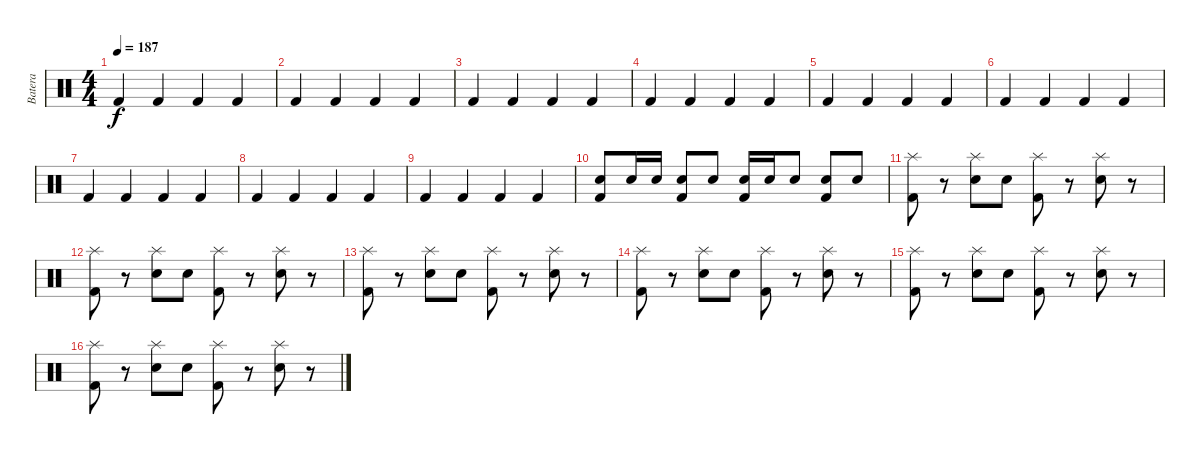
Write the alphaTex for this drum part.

\track ("Batera" "Batera") {instrument percussion}
\staff {score}
\articulation defaults
\ts (4 4)
\tempo 187
\clef neutral
\ks c "Kick (hit) 2".4{dy f} "Kick (hit) 2".4 "Kick (hit) 2".4 "Kick (hit) 2".4
|
"Kick (hit) 2".4 "Kick (hit) 2".4 "Kick (hit) 2".4 "Kick (hit) 2".4 |
"Kick (hit) 2".4 "Kick (hit) 2".4 "Kick (hit) 2".4 "Kick (hit) 2".4 |
"Kick (hit) 2".4 "Kick (hit) 2".4 "Kick (hit) 2".4 "Kick (hit) 2".4 |
"Kick (hit) 2".4 "Kick (hit) 2".4 "Kick (hit) 2".4 "Kick (hit) 2".4 |
"Kick (hit) 2".4 "Kick (hit) 2".4 "Kick (hit) 2".4 "Kick (hit) 2".4 |
"Kick (hit) 2".4 "Kick (hit) 2".4 "Kick (hit) 2".4 "Kick (hit) 2".4 |
"Kick (hit) 2".4 "Kick (hit) 2".4 "Kick (hit) 2".4 "Kick (hit) 2".4 |
"Kick (hit) 2".4 "Kick (hit) 2".4 "Kick (hit) 2".4 "Kick (hit) 2".4 |
("Electric Snare (hit)" "Kick (hit) 2").8 "Electric Snare (hit)".16 "Electric Snare (hit)".16 ("Electric Snare (hit)" "Kick (hit) 2").8 "Electric Snare (hit)".8 ("Electric Snare (hit)" "Kick (hit) 2").16 "Electric Snare (hit)".16 "Electric Snare (hit)".8 ("Electric Snare (hit)" "Kick (hit) 2").8 "Electric Snare (hit)".8 |
("Splash (hit)" "Kick (hit) 2").8 r.8 ("Splash (hit)" "Electric Snare (hit)").8 "Electric Snare (hit)".8 ("Splash (hit)" "Kick (hit) 2").8 r.8 ("Splash (hit)" "Electric Snare (hit)").8 r.8 |
("Splash (hit)" "Kick (hit) 2").8 r.8 ("Splash (hit)" "Electric Snare (hit)").8 "Electric Snare (hit)".8 ("Splash (hit)" "Kick (hit) 2").8 r.8 ("Splash (hit)" "Electric Snare (hit)").8 r.8 |
("Splash (hit)" "Kick (hit) 2").8 r.8 ("Splash (hit)" "Electric Snare (hit)").8 "Electric Snare (hit)".8 ("Splash (hit)" "Kick (hit) 2").8 r.8 ("Splash (hit)" "Electric Snare (hit)").8 r.8 |
("Splash (hit)" "Kick (hit) 2").8 r.8 ("Splash (hit)" "Electric Snare (hit)").8 "Electric Snare (hit)".8 ("Splash (hit)" "Kick (hit) 2").8 r.8 ("Splash (hit)" "Electric Snare (hit)").8 r.8 |
("Splash (hit)" "Kick (hit) 2").8 r.8 ("Splash (hit)" "Electric Snare (hit)").8 "Electric Snare (hit)".8 ("Splash (hit)" "Kick (hit) 2").8 r.8 ("Splash (hit)" "Electric Snare (hit)").8 r.8 |
("Splash (hit)" "Kick (hit) 2").8 r.8 ("Splash (hit)" "Electric Snare (hit)").8 "Electric Snare (hit)".8 ("Splash (hit)" "Kick (hit) 2").8 r.8 ("Splash (hit)" "Electric Snare (hit)").8 r.8
